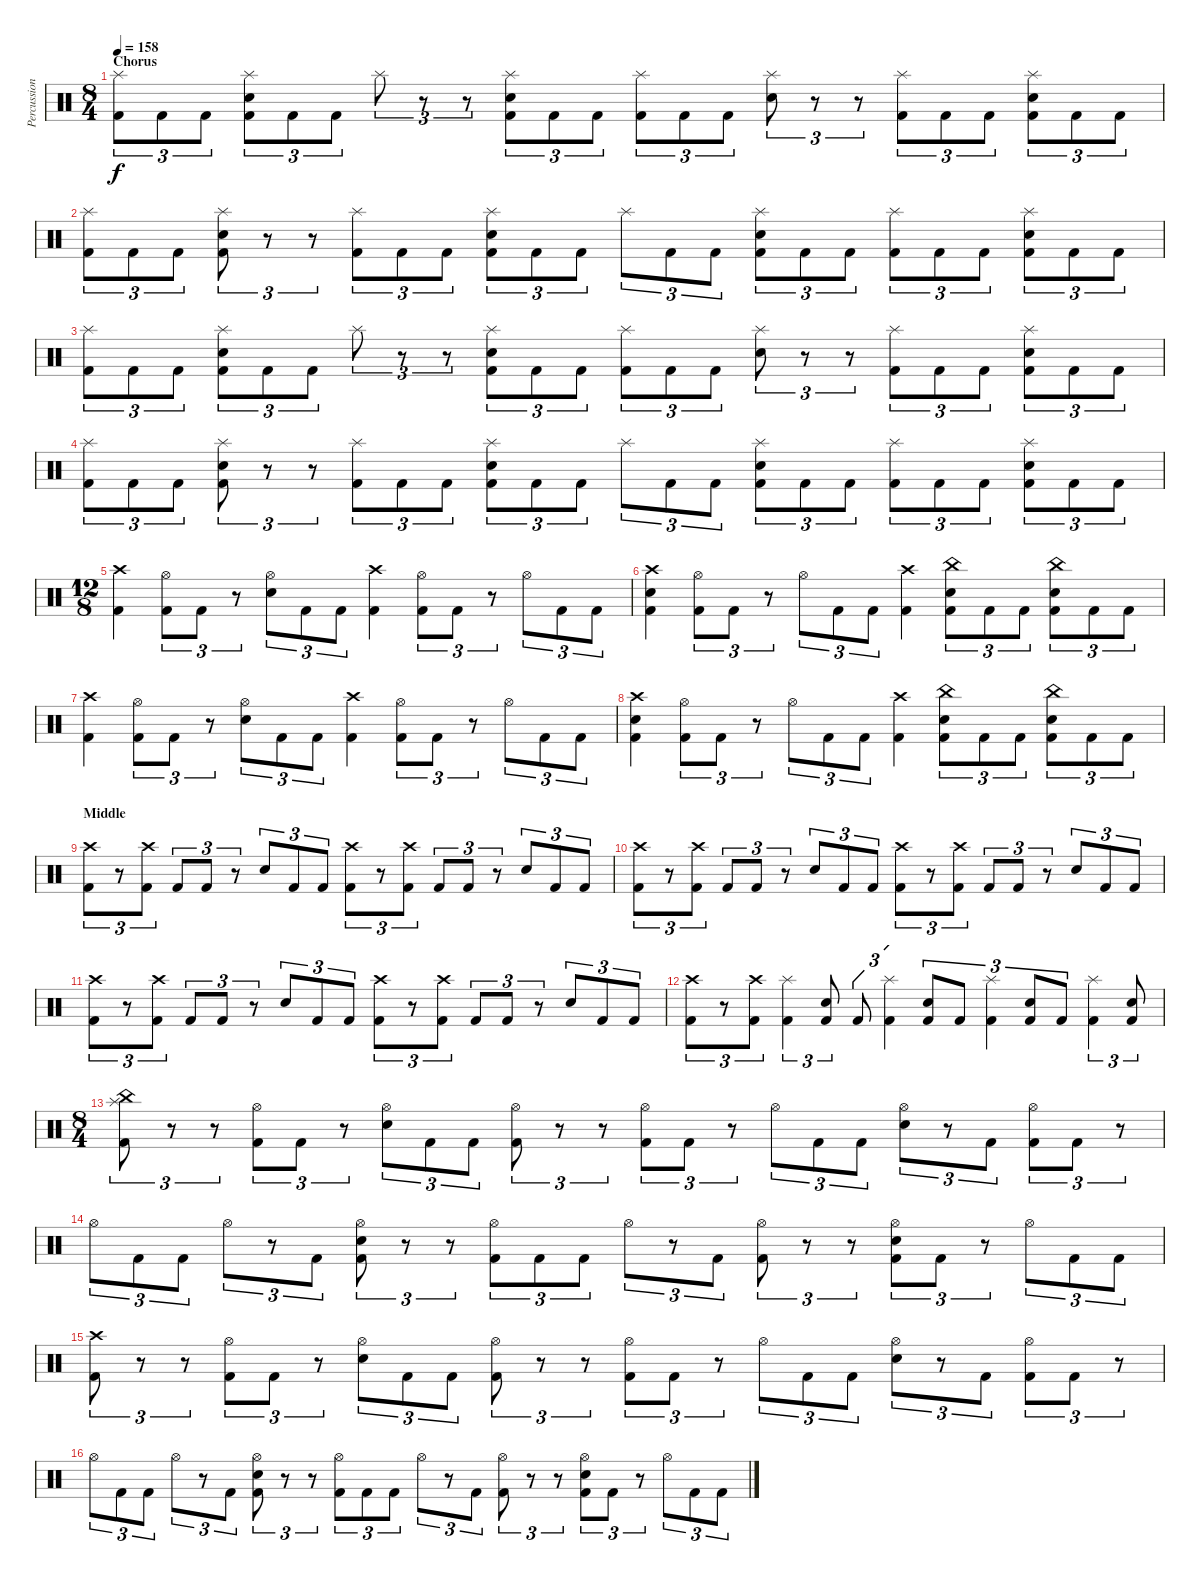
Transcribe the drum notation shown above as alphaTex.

\track ("Percussion" "Percussion") {instrument percussion}
\staff {score}
\articulation defaults
\ts (8 4)
\section ("" "Chorus")
\tempo 158
\clef neutral
\ks c
("Splash (hit)" "Kick (hit) 2").8{tu (3 2) dy f} "Kick (hit) 2".8{tu (3 2)} "Kick (hit) 2".8{tu (3 2)} ("Splash (hit)" "Electric Snare (hit)" "Kick (hit) 2").8{tu (3 2)} "Kick (hit) 2".8{tu (3 2)} "Kick (hit) 2".8{tu (3 2)} "Splash (hit)".8{tu (3 2)} r.8{tu (3 2)} r.8{tu (3 2)} ("Splash (hit)" "Electric Snare (hit)" "Kick (hit) 2").8{tu (3 2)} "Kick (hit) 2".8{tu (3 2)} "Kick (hit) 2".8{tu (3 2)} ("Splash (hit)" "Kick (hit) 2").8{tu (3 2)} "Kick (hit) 2".8{tu (3 2)} "Kick (hit) 2".8{tu (3 2)} ("Splash (hit)" "Electric Snare (hit)").8{tu (3 2)} r.8{tu (3 2)} r.8{tu (3 2)} ("Splash (hit)" "Kick (hit) 2").8{tu (3 2)} "Kick (hit) 2".8{tu (3 2)} "Kick (hit) 2".8{tu (3 2)} ("Splash (hit)" "Electric Snare (hit)" "Kick (hit) 2").8{tu (3 2)} "Kick (hit) 2".8{tu (3 2)} "Kick (hit) 2".8{tu (3 2)} |
("Splash (hit)" "Kick (hit) 2").8{tu (3 2)} "Kick (hit) 2".8{tu (3 2)} "Kick (hit) 2".8{tu (3 2)} ("Splash (hit)" "Electric Snare (hit)" "Kick (hit) 2").8{tu (3 2)} r.8{tu (3 2)} r.8{tu (3 2)} ("Splash (hit)" "Kick (hit) 2").8{tu (3 2)} "Kick (hit) 2".8{tu (3 2)} "Kick (hit) 2".8{tu (3 2)} ("Splash (hit)" "Electric Snare (hit)" "Kick (hit) 2").8{tu (3 2)} "Kick (hit) 2".8{tu (3 2)} "Kick (hit) 2".8{tu (3 2)} "Splash (hit)".8{tu (3 2)} "Kick (hit) 2".8{tu (3 2)} "Kick (hit) 2".8{tu (3 2)} ("Splash (hit)" "Electric Snare (hit)" "Kick (hit) 2").8{tu (3 2)} "Kick (hit) 2".8{tu (3 2)} "Kick (hit) 2".8{tu (3 2)} ("Splash (hit)" "Kick (hit) 2").8{tu (3 2)} "Kick (hit) 2".8{tu (3 2)} "Kick (hit) 2".8{tu (3 2)} ("Splash (hit)" "Electric Snare (hit)" "Kick (hit) 2").8{tu (3 2)} "Kick (hit) 2".8{tu (3 2)} "Kick (hit) 2".8{tu (3 2)} |
("Splash (hit)" "Kick (hit) 2").8{tu (3 2)} "Kick (hit) 2".8{tu (3 2)} "Kick (hit) 2".8{tu (3 2)} ("Splash (hit)" "Electric Snare (hit)" "Kick (hit) 2").8{tu (3 2)} "Kick (hit) 2".8{tu (3 2)} "Kick (hit) 2".8{tu (3 2)} "Splash (hit)".8{tu (3 2)} r.8{tu (3 2)} r.8{tu (3 2)} ("Splash (hit)" "Electric Snare (hit)" "Kick (hit) 2").8{tu (3 2)} "Kick (hit) 2".8{tu (3 2)} "Kick (hit) 2".8{tu (3 2)} ("Splash (hit)" "Kick (hit) 2").8{tu (3 2)} "Kick (hit) 2".8{tu (3 2)} "Kick (hit) 2".8{tu (3 2)} ("Splash (hit)" "Electric Snare (hit)").8{tu (3 2)} r.8{tu (3 2)} r.8{tu (3 2)} ("Splash (hit)" "Kick (hit) 2").8{tu (3 2)} "Kick (hit) 2".8{tu (3 2)} "Kick (hit) 2".8{tu (3 2)} ("Splash (hit)" "Electric Snare (hit)" "Kick (hit) 2").8{tu (3 2)} "Kick (hit) 2".8{tu (3 2)} "Kick (hit) 2".8{tu (3 2)} |
("Splash (hit)" "Kick (hit) 2").8{tu (3 2)} "Kick (hit) 2".8{tu (3 2)} "Kick (hit) 2".8{tu (3 2)} ("Splash (hit)" "Electric Snare (hit)" "Kick (hit) 2").8{tu (3 2)} r.8{tu (3 2)} r.8{tu (3 2)} ("Splash (hit)" "Kick (hit) 2").8{tu (3 2)} "Kick (hit) 2".8{tu (3 2)} "Kick (hit) 2".8{tu (3 2)} ("Splash (hit)" "Electric Snare (hit)" "Kick (hit) 2").8{tu (3 2)} "Kick (hit) 2".8{tu (3 2)} "Kick (hit) 2".8{tu (3 2)} "Splash (hit)".8{tu (3 2)} "Kick (hit) 2".8{tu (3 2)} "Kick (hit) 2".8{tu (3 2)} ("Splash (hit)" "Electric Snare (hit)" "Kick (hit) 2").8{tu (3 2)} "Kick (hit) 2".8{tu (3 2)} "Kick (hit) 2".8{tu (3 2)} ("Splash (hit)" "Kick (hit) 2").8{tu (3 2)} "Kick (hit) 2".8{tu (3 2)} "Kick (hit) 2".8{tu (3 2)} ("Splash (hit)" "Electric Snare (hit)" "Kick (hit) 2").8{tu (3 2)} "Kick (hit) 2".8{tu (3 2)} "Kick (hit) 2".8{tu (3 2)} |
\ts (12 8)
("Crash high (hit)" "Kick (hit) 2").4 ("Hi-Hat (open)" "Kick (hit) 2").8{tu (3 2)} "Kick (hit) 2".8{tu (3 2)} r.8{tu (3 2)} ("Hi-Hat (open)" "Electric Snare (hit)").8{tu (3 2)} "Kick (hit) 2".8{tu (3 2)} "Kick (hit) 2".8{tu (3 2)} ("Crash high (hit)" "Kick (hit) 2").4 ("Hi-Hat (open)" "Kick (hit) 2").8{tu (3 2)} "Kick (hit) 2".8{tu (3 2)} r.8{tu (3 2)} "Hi-Hat (open)".8{tu (3 2)} "Kick (hit) 2".8{tu (3 2)} "Kick (hit) 2".8{tu (3 2)} |
("Crash high (hit)" "Electric Snare (hit)" "Kick (hit) 2").4 ("Hi-Hat (open)" "Kick (hit) 2").8{tu (3 2)} "Kick (hit) 2".8{tu (3 2)} r.8{tu (3 2)} "Hi-Hat (open)".8{tu (3 2)} "Kick (hit) 2".8{tu (3 2)} "Kick (hit) 2".8{tu (3 2)} ("Crash high (hit)" "Kick (hit) 2").4 ("China (hit)" "Electric Snare (hit)" "Kick (hit) 2").8{tu (3 2)} "Kick (hit) 2".8{tu (3 2)} "Kick (hit) 2".8{tu (3 2)} ("China (hit)" "Electric Snare (hit)" "Kick (hit) 2").8{tu (3 2)} "Kick (hit) 2".8{tu (3 2)} "Kick (hit) 2".8{tu (3 2)} |
("Crash high (hit)" "Kick (hit) 2").4 ("Hi-Hat (open)" "Kick (hit) 2").8{tu (3 2)} "Kick (hit) 2".8{tu (3 2)} r.8{tu (3 2)} ("Hi-Hat (open)" "Electric Snare (hit)").8{tu (3 2)} "Kick (hit) 2".8{tu (3 2)} "Kick (hit) 2".8{tu (3 2)} ("Crash high (hit)" "Kick (hit) 2").4 ("Hi-Hat (open)" "Kick (hit) 2").8{tu (3 2)} "Kick (hit) 2".8{tu (3 2)} r.8{tu (3 2)} "Hi-Hat (open)".8{tu (3 2)} "Kick (hit) 2".8{tu (3 2)} "Kick (hit) 2".8{tu (3 2)} |
("Crash high (hit)" "Electric Snare (hit)" "Kick (hit) 2").4 ("Hi-Hat (open)" "Kick (hit) 2").8{tu (3 2)} "Kick (hit) 2".8{tu (3 2)} r.8{tu (3 2)} "Hi-Hat (open)".8{tu (3 2)} "Kick (hit) 2".8{tu (3 2)} "Kick (hit) 2".8{tu (3 2)} ("Crash high (hit)" "Kick (hit) 2").4 ("China (hit)" "Electric Snare (hit)" "Kick (hit) 2").8{tu (3 2)} "Kick (hit) 2".8{tu (3 2)} "Kick (hit) 2".8{tu (3 2)} ("China (hit)" "Electric Snare (hit)" "Kick (hit) 2").8{tu (3 2)} "Kick (hit) 2".8{tu (3 2)} "Kick (hit) 2".8{tu (3 2)} |
\section ("" "Middle")
("Crash high (hit)" "Kick (hit) 2").8{tu (3 2)} r.8{tu (3 2)} ("Crash high (hit)" "Kick (hit) 2").8{tu (3 2)} "Kick (hit) 2".8{tu (3 2)} "Kick (hit) 2".8{tu (3 2)} r.8{tu (3 2)} "Electric Snare (hit)".8{tu (3 2)} "Kick (hit) 2".8{tu (3 2)} "Kick (hit) 2".8{tu (3 2)} ("Crash high (hit)" "Kick (hit) 2").8{tu (3 2)} r.8{tu (3 2)} ("Crash high (hit)" "Kick (hit) 2").8{tu (3 2)} "Kick (hit) 2".8{tu (3 2)} "Kick (hit) 2".8{tu (3 2)} r.8{tu (3 2)} "Electric Snare (hit)".8{tu (3 2)} "Kick (hit) 2".8{tu (3 2)} "Kick (hit) 2".8{tu (3 2)} |
("Crash high (hit)" "Kick (hit) 2").8{tu (3 2)} r.8{tu (3 2)} ("Crash high (hit)" "Kick (hit) 2").8{tu (3 2)} "Kick (hit) 2".8{tu (3 2)} "Kick (hit) 2".8{tu (3 2)} r.8{tu (3 2)} "Electric Snare (hit)".8{tu (3 2)} "Kick (hit) 2".8{tu (3 2)} "Kick (hit) 2".8{tu (3 2)} ("Crash high (hit)" "Kick (hit) 2").8{tu (3 2)} r.8{tu (3 2)} ("Crash high (hit)" "Kick (hit) 2").8{tu (3 2)} "Kick (hit) 2".8{tu (3 2)} "Kick (hit) 2".8{tu (3 2)} r.8{tu (3 2)} "Electric Snare (hit)".8{tu (3 2)} "Kick (hit) 2".8{tu (3 2)} "Kick (hit) 2".8{tu (3 2)} |
("Crash high (hit)" "Kick (hit) 2").8{tu (3 2)} r.8{tu (3 2)} ("Crash high (hit)" "Kick (hit) 2").8{tu (3 2)} "Kick (hit) 2".8{tu (3 2)} "Kick (hit) 2".8{tu (3 2)} r.8{tu (3 2)} "Electric Snare (hit)".8{tu (3 2)} "Kick (hit) 2".8{tu (3 2)} "Kick (hit) 2".8{tu (3 2)} ("Crash high (hit)" "Kick (hit) 2").8{tu (3 2)} r.8{tu (3 2)} ("Crash high (hit)" "Kick (hit) 2").8{tu (3 2)} "Kick (hit) 2".8{tu (3 2)} "Kick (hit) 2".8{tu (3 2)} r.8{tu (3 2)} "Electric Snare (hit)".8{tu (3 2)} "Kick (hit) 2".8{tu (3 2)} "Kick (hit) 2".8{tu (3 2)} |
("Crash high (hit)" "Kick (hit) 2").8{tu (3 2)} r.8{tu (3 2)} ("Crash high (hit)" "Kick (hit) 2").8{tu (3 2)} ("Splash (hit)" "Kick (hit) 2").4{tu (3 2)} ("Electric Snare (hit)" "Kick (hit) 2").8{tu (3 2)} "Kick (hit) 2".8{tu (3 2)} ("Splash (hit)" "Kick (hit) 2").4{tu (3 2)} ("Electric Snare (hit)" "Kick (hit) 2").8{tu (3 2)} "Kick (hit) 2".8{tu (3 2)} ("Splash (hit)" "Kick (hit) 2").4{tu (3 2)} ("Electric Snare (hit)" "Kick (hit) 2").8{tu (3 2)} "Kick (hit) 2".8{tu (3 2)} ("Splash (hit)" "Kick (hit) 2").4{tu (3 2)} ("Electric Snare (hit)" "Kick (hit) 2").8{tu (3 2)} |
\ts (8 4)
("Splash (hit)" "China (hit)" "Kick (hit) 2").8{tu (3 2)} r.8{tu (3 2)} r.8{tu (3 2)} ("Hi-Hat (open)" "Kick (hit) 2").8{tu (3 2)} "Kick (hit) 2".8{tu (3 2)} r.8{tu (3 2)} ("Hi-Hat (open)" "Electric Snare (hit)").8{tu (3 2)} "Kick (hit) 2".8{tu (3 2)} "Kick (hit) 2".8{tu (3 2)} ("Hi-Hat (open)" "Kick (hit) 2").8{tu (3 2)} r.8{tu (3 2)} r.8{tu (3 2)} ("Hi-Hat (open)" "Kick (hit) 2").8{tu (3 2)} "Kick (hit) 2".8{tu (3 2)} r.8{tu (3 2)} "Hi-Hat (open)".8{tu (3 2)} "Kick (hit) 2".8{tu (3 2)} "Kick (hit) 2".8{tu (3 2)} ("Hi-Hat (open)" "Electric Snare (hit)").8{tu (3 2)} r.8{tu (3 2)} "Kick (hit) 2".8{tu (3 2)} ("Hi-Hat (open)" "Kick (hit) 2").8{tu (3 2)} "Kick (hit) 2".8{tu (3 2)} r.8{tu (3 2)} |
"Hi-Hat (open)".8{tu (3 2)} "Kick (hit) 2".8{tu (3 2)} "Kick (hit) 2".8{tu (3 2)} "Hi-Hat (open)".8{tu (3 2)} r.8{tu (3 2)} "Kick (hit) 2".8{tu (3 2)} ("Hi-Hat (open)" "Electric Snare (hit)" "Kick (hit) 2").8{tu (3 2)} r.8{tu (3 2)} r.8{tu (3 2)} ("Hi-Hat (open)" "Kick (hit) 2").8{tu (3 2)} "Kick (hit) 2".8{tu (3 2)} "Kick (hit) 2".8{tu (3 2)} "Hi-Hat (open)".8{tu (3 2)} r.8{tu (3 2)} "Kick (hit) 2".8{tu (3 2)} ("Hi-Hat (open)" "Kick (hit) 2").8{tu (3 2)} r.8{tu (3 2)} r.8{tu (3 2)} ("Hi-Hat (open)" "Electric Snare (hit)" "Kick (hit) 2").8{tu (3 2)} "Kick (hit) 2".8{tu (3 2)} r.8{tu (3 2)} "Hi-Hat (open)".8{tu (3 2)} "Kick (hit) 2".8{tu (3 2)} "Kick (hit) 2".8{tu (3 2)} |
("Crash high (hit)" "Kick (hit) 2").8{tu (3 2)} r.8{tu (3 2)} r.8{tu (3 2)} ("Hi-Hat (open)" "Kick (hit) 2").8{tu (3 2)} "Kick (hit) 2".8{tu (3 2)} r.8{tu (3 2)} ("Hi-Hat (open)" "Electric Snare (hit)").8{tu (3 2)} "Kick (hit) 2".8{tu (3 2)} "Kick (hit) 2".8{tu (3 2)} ("Hi-Hat (open)" "Kick (hit) 2").8{tu (3 2)} r.8{tu (3 2)} r.8{tu (3 2)} ("Hi-Hat (open)" "Kick (hit) 2").8{tu (3 2)} "Kick (hit) 2".8{tu (3 2)} r.8{tu (3 2)} "Hi-Hat (open)".8{tu (3 2)} "Kick (hit) 2".8{tu (3 2)} "Kick (hit) 2".8{tu (3 2)} ("Hi-Hat (open)" "Electric Snare (hit)").8{tu (3 2)} r.8{tu (3 2)} "Kick (hit) 2".8{tu (3 2)} ("Hi-Hat (open)" "Kick (hit) 2").8{tu (3 2)} "Kick (hit) 2".8{tu (3 2)} r.8{tu (3 2)} |
"Hi-Hat (open)".8{tu (3 2)} "Kick (hit) 2".8{tu (3 2)} "Kick (hit) 2".8{tu (3 2)} "Hi-Hat (open)".8{tu (3 2)} r.8{tu (3 2)} "Kick (hit) 2".8{tu (3 2)} ("Hi-Hat (open)" "Electric Snare (hit)" "Kick (hit) 2").8{tu (3 2)} r.8{tu (3 2)} r.8{tu (3 2)} ("Hi-Hat (open)" "Kick (hit) 2").8{tu (3 2)} "Kick (hit) 2".8{tu (3 2)} "Kick (hit) 2".8{tu (3 2)} "Hi-Hat (open)".8{tu (3 2)} r.8{tu (3 2)} "Kick (hit) 2".8{tu (3 2)} ("Hi-Hat (open)" "Kick (hit) 2").8{tu (3 2)} r.8{tu (3 2)} r.8{tu (3 2)} ("Hi-Hat (open)" "Electric Snare (hit)" "Kick (hit) 2").8{tu (3 2)} "Kick (hit) 2".8{tu (3 2)} r.8{tu (3 2)} "Hi-Hat (open)".8{tu (3 2)} "Kick (hit) 2".8{tu (3 2)} "Kick (hit) 2".8{tu (3 2)}
